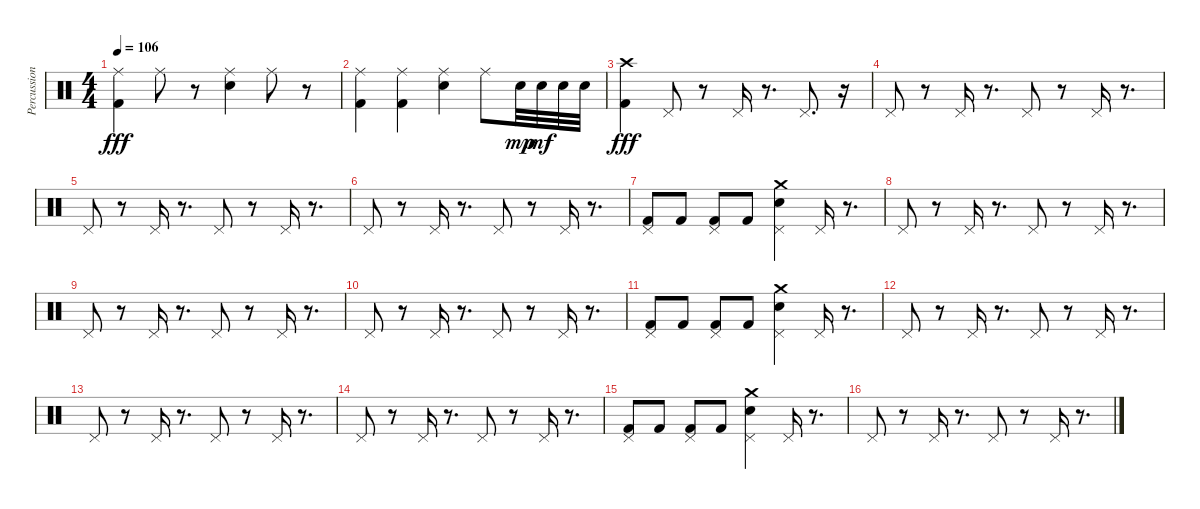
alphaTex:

\track ("Percussion" "Percussion") {instrument percussion}
\staff {score}
\articulation defaults
\ts (4 4)
\tempo 106
\clef neutral
\ks c
("Kick (hit) 2" "Ride (middle)").4{dy fff} "Ride (middle)".8 r.8 ("Snare (hit) 2" "Ride (middle)").4 "Ride (middle)".8 r.8 |
("Kick (hit) 2" "Ride (middle)").4 ("Kick (hit) 2" "Ride (middle)").4 ("Snare (hit) 2" "Ride (middle)").4 "Ride (middle)".8 "Snare (hit) 2".32{dy mp} "Snare (hit) 2".32{dy mf} "Snare (hit) 2".32 "Snare (hit) 2".32 |
("Kick (hit) 2" "Crash high (hit)").4{dy fff} "Pedal Hi-Hat (hit)".8 r.8 "Pedal Hi-Hat (hit)".16 r.8{d} "Pedal Hi-Hat (hit)".8{d} r.16 |
"Pedal Hi-Hat (hit)".8 r.8 "Pedal Hi-Hat (hit)".16 r.8{d} "Pedal Hi-Hat (hit)".8 r.8 "Pedal Hi-Hat (hit)".16 r.8{d} |
"Pedal Hi-Hat (hit)".8 r.8 "Pedal Hi-Hat (hit)".16 r.8{d} "Pedal Hi-Hat (hit)".8 r.8 "Pedal Hi-Hat (hit)".16 r.8{d} |
"Pedal Hi-Hat (hit)".8 r.8 "Pedal Hi-Hat (hit)".16 r.8{d} "Pedal Hi-Hat (hit)".8 r.8 "Pedal Hi-Hat (hit)".16 r.8{d} |
("Pedal Hi-Hat (hit)" "Kick (hit) 2").8 "Kick (hit) 2".8 ("Kick (hit) 2" "Pedal Hi-Hat (hit)").8 "Kick (hit) 2".8 ("Snare (hit) 2" "Crash medium (hit)" "Pedal Hi-Hat (hit)").4 "Pedal Hi-Hat (hit)".16 r.8{d} |
"Pedal Hi-Hat (hit)".8 r.8 "Pedal Hi-Hat (hit)".16 r.8{d} "Pedal Hi-Hat (hit)".8 r.8 "Pedal Hi-Hat (hit)".16 r.8{d} |
"Pedal Hi-Hat (hit)".8 r.8 "Pedal Hi-Hat (hit)".16 r.8{d} "Pedal Hi-Hat (hit)".8 r.8 "Pedal Hi-Hat (hit)".16 r.8{d} |
"Pedal Hi-Hat (hit)".8 r.8 "Pedal Hi-Hat (hit)".16 r.8{d} "Pedal Hi-Hat (hit)".8 r.8 "Pedal Hi-Hat (hit)".16 r.8{d} |
("Kick (hit) 2" "Pedal Hi-Hat (hit)").8 "Kick (hit) 2".8 ("Kick (hit) 2" "Pedal Hi-Hat (hit)").8 "Kick (hit) 2".8 ("Snare (hit) 2" "Crash medium (hit)" "Pedal Hi-Hat (hit)").4 "Pedal Hi-Hat (hit)".16 r.8{d} |
"Pedal Hi-Hat (hit)".8 r.8 "Pedal Hi-Hat (hit)".16 r.8{d} "Pedal Hi-Hat (hit)".8 r.8 "Pedal Hi-Hat (hit)".16 r.8{d} |
"Pedal Hi-Hat (hit)".8 r.8 "Pedal Hi-Hat (hit)".16 r.8{d} "Pedal Hi-Hat (hit)".8 r.8 "Pedal Hi-Hat (hit)".16 r.8{d} |
"Pedal Hi-Hat (hit)".8 r.8 "Pedal Hi-Hat (hit)".16 r.8{d} "Pedal Hi-Hat (hit)".8 r.8 "Pedal Hi-Hat (hit)".16 r.8{d} |
("Kick (hit) 2" "Pedal Hi-Hat (hit)").8 "Kick (hit) 2".8 ("Kick (hit) 2" "Pedal Hi-Hat (hit)").8 "Kick (hit) 2".8 ("Snare (hit) 2" "Crash medium (hit)" "Pedal Hi-Hat (hit)").4 "Pedal Hi-Hat (hit)".16 r.8{d} |
"Pedal Hi-Hat (hit)".8 r.8 "Pedal Hi-Hat (hit)".16 r.8{d} "Pedal Hi-Hat (hit)".8 r.8 "Pedal Hi-Hat (hit)".16 r.8{d}
